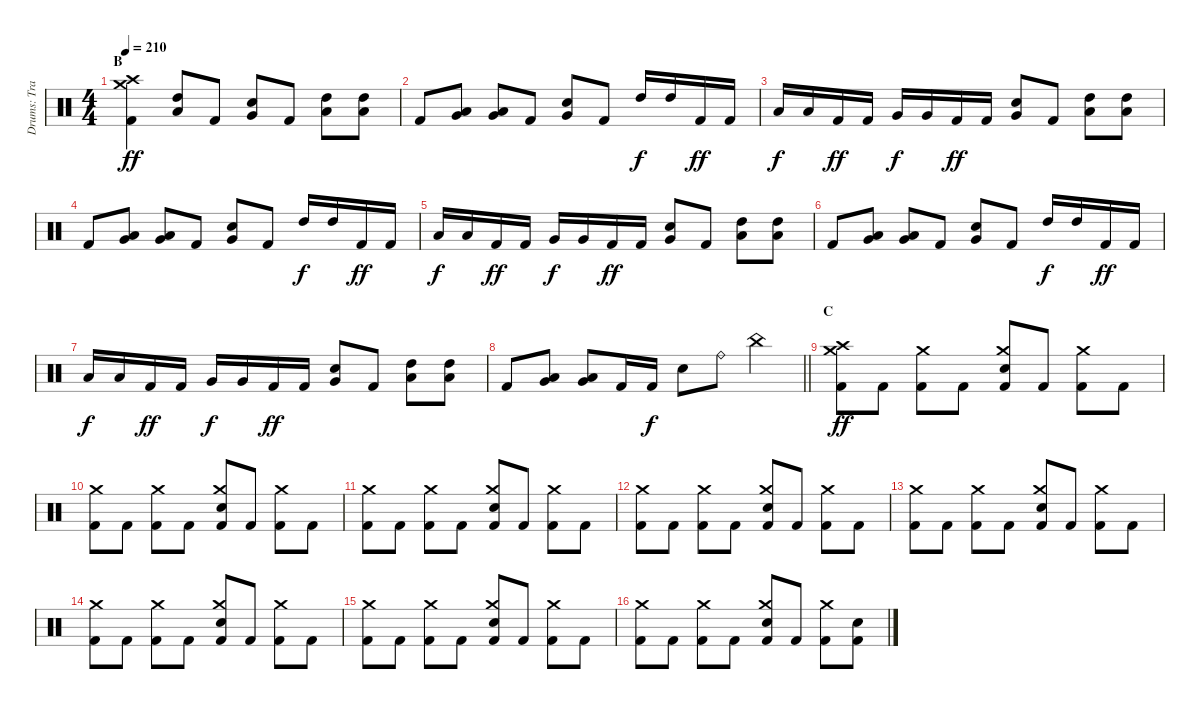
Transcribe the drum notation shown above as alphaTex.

\track ("Drums: Trav Clarke" "Drums: Tra") {instrument percussion}
\staff {score}
\articulation defaults
\ts (4 4)
\section ("" "B")
\tempo 210
\clef neutral
\ks c
("Kick (hit) 2" "Crash high (hit)" "Crash medium (hit)").4{dy ff} ("Low Tom (hit)" "High Tom (hit)").8 "Kick (hit) 2".8 ("Snare (hit) 2" "Very Low Tom (hit)").8 "Kick (hit) 2".8 ("Low Tom (hit)" "High Tom (hit)").8 ("Low Tom (hit)" "High Tom (hit)").8 |
"Kick (hit) 2".8 ("Very Low Tom (hit)" "Low Tom (hit)").8 ("Very Low Tom (hit)" "Low Tom (hit)").8 "Kick (hit) 2".8 ("Snare (hit) 2" "Very Low Tom (hit)").8 "Kick (hit) 2".8 "High Tom (hit)".16{dy f} "High Tom (hit)".16 "Kick (hit) 2".16{dy ff} "Kick (hit) 2".16 |
"Low Tom (hit)".16{dy f} "Low Tom (hit)".16 "Kick (hit) 2".16{dy ff} "Kick (hit) 2".16 "Very Low Tom (hit)".16{dy f} "Very Low Tom (hit)".16 "Kick (hit) 2".16{dy ff} "Kick (hit) 2".16 ("Snare (hit) 2" "Very Low Tom (hit)").8 "Kick (hit) 2".8 ("Low Tom (hit)" "High Tom (hit)").8 ("Low Tom (hit)" "High Tom (hit)").8 |
"Kick (hit) 2".8 ("Very Low Tom (hit)" "Low Tom (hit)").8 ("Very Low Tom (hit)" "Low Tom (hit)").8 "Kick (hit) 2".8 ("Snare (hit) 2" "Very Low Tom (hit)").8 "Kick (hit) 2".8 "High Tom (hit)".16{dy f} "High Tom (hit)".16 "Kick (hit) 2".16{dy ff} "Kick (hit) 2".16 |
"Low Tom (hit)".16{dy f} "Low Tom (hit)".16 "Kick (hit) 2".16{dy ff} "Kick (hit) 2".16 "Very Low Tom (hit)".16{dy f} "Very Low Tom (hit)".16 "Kick (hit) 2".16{dy ff} "Kick (hit) 2".16 ("Snare (hit) 2" "Very Low Tom (hit)").8 "Kick (hit) 2".8 ("Low Tom (hit)" "High Tom (hit)").8 ("Low Tom (hit)" "High Tom (hit)").8 |
"Kick (hit) 2".8 ("Very Low Tom (hit)" "Low Tom (hit)").8 ("Very Low Tom (hit)" "Low Tom (hit)").8 "Kick (hit) 2".8 ("Snare (hit) 2" "Very Low Tom (hit)").8 "Kick (hit) 2".8 "High Tom (hit)".16{dy f} "High Tom (hit)".16 "Kick (hit) 2".16{dy ff} "Kick (hit) 2".16 |
"Low Tom (hit)".16{dy f} "Low Tom (hit)".16 "Kick (hit) 2".16{dy ff} "Kick (hit) 2".16 "Very Low Tom (hit)".16{dy f} "Very Low Tom (hit)".16 "Kick (hit) 2".16{dy ff} "Kick (hit) 2".16 ("Snare (hit) 2" "Very Low Tom (hit)").8 "Kick (hit) 2".8 ("Low Tom (hit)" "High Tom (hit)").8 ("Low Tom (hit)" "High Tom (hit)").8 |
\barLineRight lightlight "Kick (hit) 2".8
("Very Low Tom (hit)" "Low Tom (hit)").8 ("Very Low Tom (hit)" "Low Tom (hit)").8 "Kick (hit) 2".16 "Kick (hit) 2".16{dy f} "Snare (hit) 2".8 "Ride (bell)".8 "China (hit)".4 |
\section ("" "C")
("Kick (hit) 2" "Crash high (hit)" "Crash medium (hit)").8{dy ff} "Kick (hit) 2".8 ("Kick (hit) 2" "Crash medium (hit)").8 "Kick (hit) 2".8 ("Kick (hit) 2" "Snare (hit) 2" "Crash medium (hit)").8 "Kick (hit) 2".8 ("Kick (hit) 2" "Crash medium (hit)").8 "Kick (hit) 2".8 |
("Kick (hit) 2" "Crash medium (hit)").8 "Kick (hit) 2".8 ("Kick (hit) 2" "Crash medium (hit)").8 "Kick (hit) 2".8 ("Kick (hit) 2" "Snare (hit) 2" "Crash medium (hit)").8 "Kick (hit) 2".8 ("Kick (hit) 2" "Crash medium (hit)").8 "Kick (hit) 2".8 |
("Kick (hit) 2" "Crash medium (hit)").8 "Kick (hit) 2".8 ("Kick (hit) 2" "Crash medium (hit)").8 "Kick (hit) 2".8 ("Kick (hit) 2" "Snare (hit) 2" "Crash medium (hit)").8 "Kick (hit) 2".8 ("Kick (hit) 2" "Crash medium (hit)").8 "Kick (hit) 2".8 |
("Kick (hit) 2" "Crash medium (hit)").8 "Kick (hit) 2".8 ("Kick (hit) 2" "Crash medium (hit)").8 "Kick (hit) 2".8 ("Kick (hit) 2" "Snare (hit) 2" "Crash medium (hit)").8 "Kick (hit) 2".8 ("Kick (hit) 2" "Crash medium (hit)").8 "Kick (hit) 2".8 |
("Kick (hit) 2" "Crash medium (hit)").8 "Kick (hit) 2".8 ("Kick (hit) 2" "Crash medium (hit)").8 "Kick (hit) 2".8 ("Kick (hit) 2" "Snare (hit) 2" "Crash medium (hit)").8 "Kick (hit) 2".8 ("Kick (hit) 2" "Crash medium (hit)").8 "Kick (hit) 2".8 |
("Kick (hit) 2" "Crash medium (hit)").8 "Kick (hit) 2".8 ("Kick (hit) 2" "Crash medium (hit)").8 "Kick (hit) 2".8 ("Kick (hit) 2" "Snare (hit) 2" "Crash medium (hit)").8 "Kick (hit) 2".8 ("Kick (hit) 2" "Crash medium (hit)").8 "Kick (hit) 2".8 |
("Kick (hit) 2" "Crash medium (hit)").8 "Kick (hit) 2".8 ("Kick (hit) 2" "Crash medium (hit)").8 "Kick (hit) 2".8 ("Kick (hit) 2" "Snare (hit) 2" "Crash medium (hit)").8 "Kick (hit) 2".8 ("Kick (hit) 2" "Crash medium (hit)").8 "Kick (hit) 2".8 |
("Kick (hit) 2" "Crash medium (hit)").8 "Kick (hit) 2".8 ("Kick (hit) 2" "Crash medium (hit)").8 "Kick (hit) 2".8 ("Kick (hit) 2" "Snare (hit) 2" "Crash medium (hit)").8 "Kick (hit) 2".8 ("Kick (hit) 2" "Crash medium (hit)").8 ("Kick (hit) 2" "Snare (hit) 2").8
